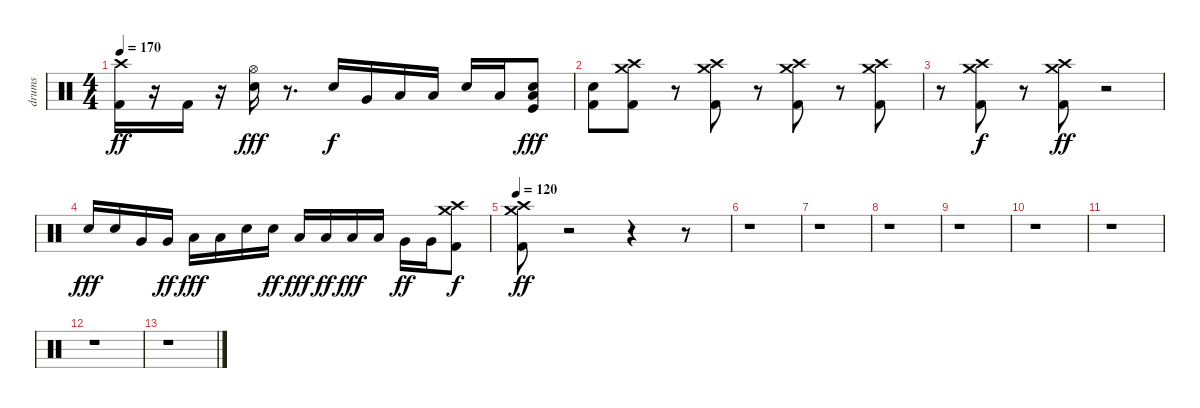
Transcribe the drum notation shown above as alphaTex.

\track ("drums" "drums") {instrument percussion}
\staff {score}
\articulation defaults
\ts (4 4)
\tempo 170
\clef neutral
\ks c
("Crash high (hit)" "Kick (hit) 2").16{dy ff} r.16 "Kick (hit) 2".16 r.16 ("Hi-Hat (open)" "Snare (hit) 2").16{dy fff} r.8{d} "Snare (hit) 2".16{dy f} "Very Low Tom (hit)".16 "Low Floor Tom (hit)".16 "Low Floor Tom (hit)".16 "Snare (hit) 2".16 "Low Floor Tom (hit)".16 ("Snare (hit) 2" "Low Floor Tom (hit)" "Kick (hit)").8{dy fff} |
("Snare (hit) 2" "Kick (hit) 2").8 ("Kick (hit) 2" "Crash high (hit)" "Crash medium (hit)").8 r.8 ("Kick (hit) 2" "Crash high (hit)" "Crash medium (hit)").8 r.8 ("Crash high (hit)" "Kick (hit) 2" "Crash medium (hit)").8 r.8 ("Crash high (hit)" "Kick (hit) 2" "Crash medium (hit)").8 |
r.8 ("Kick (hit) 2" "Crash high (hit)" "Crash medium (hit)").8{dy f} r.8 ("Crash high (hit)" "Crash medium (hit)" "Kick (hit) 2").8{dy ff} r.2 |
"Snare (hit) 2".16{dy fff} "Snare (hit) 2".16 "Very Low Tom (hit)".16 "Very Low Tom (hit)".16{dy ff} "Low Floor Tom (hit)".16{dy fff} "Low Floor Tom (hit)".16 "Snare (hit) 2".16 "Snare (hit) 2".16{dy ff} "Low Tom (hit)".16{dy fff} "Low Tom (hit)".16{dy ff} "Low Tom (hit)".16{dy fff} "Low Tom (hit)".16 "Very Low Tom (hit)".16{dy ff} "Very Low Tom (hit)".16 ("Crash medium (hit)" "Crash high (hit)" "Kick (hit) 2").8{dy f} |
\tempo 120
("Kick (hit) 2" "Crash high (hit)" "Crash medium (hit)").8{dy ff} r.2 r.4 r.8 |
r.1 |
r.1 |
r.1 |
r.1 |
r.1 |
r.1 |
r.1 |
r.1
